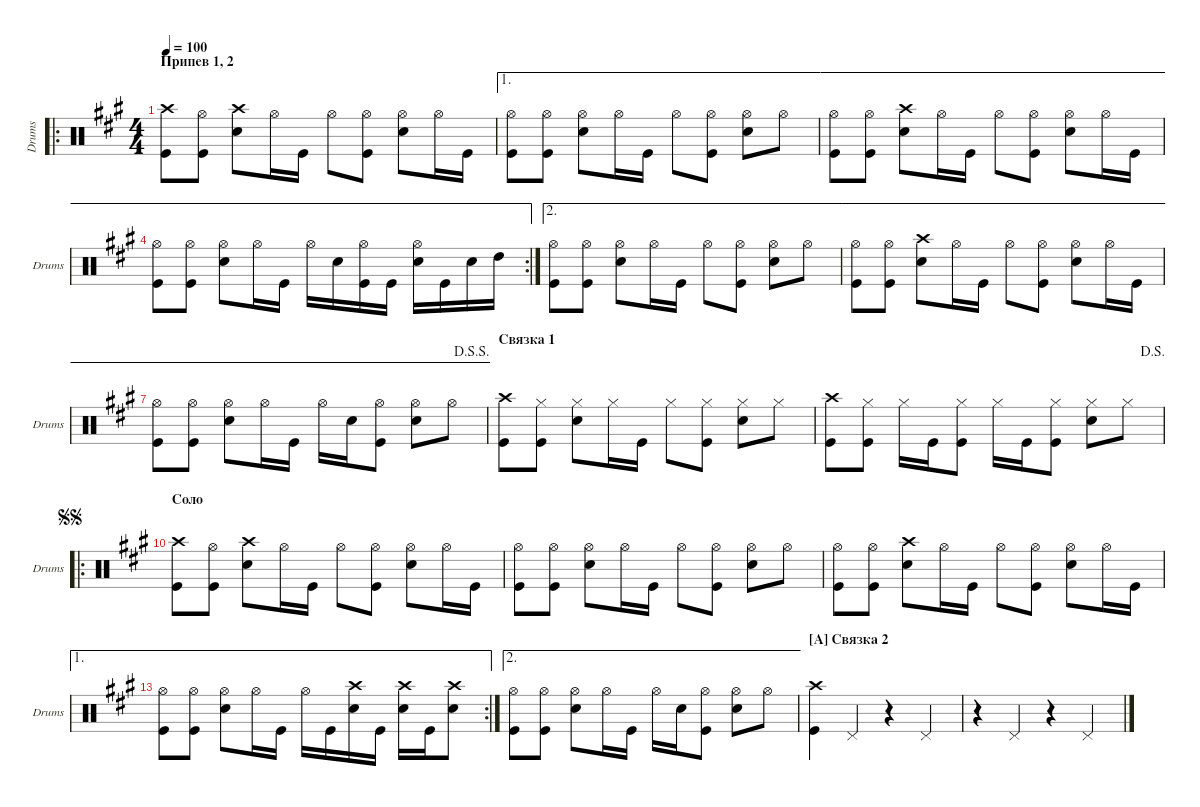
\defaultSystemsLayout 4
\hideDynamics
\bracketExtendMode groupsimilarinstruments
\singleTrackTrackNamePolicy allsystems
\multiTrackTrackNamePolicy allsystems
\otherSystemsTrackNameOrientation horizontal
\defaultBarNumberDisplay FirstOfSystem
\track ("Drumkit" "Drums") {instrument percussion}
\staff {score}
\articulation defaults
\ro
\ts (4 4)
\section ("" "Припев 1, 2")
\tempo 100
\clef neutral
\ks f#minor
("Kick (hit)" "Crash high (hit)").8{dy f} ("Kick (hit)" "Hi-Hat (open)").8 ("Snare (hit) 2" "Crash high (hit)").8 "Hi-Hat (open)".16 "Kick (hit)".16 "Hi-Hat (open)".8 ("Kick (hit)" "Hi-Hat (open)").8 ("Snare (hit) 2" "Hi-Hat (open)").8 "Hi-Hat (open)".16 "Kick (hit)".16 |
\ae 1
("Kick (hit)" "Hi-Hat (open)").8 ("Kick (hit)" "Hi-Hat (open)").8 ("Snare (hit) 2" "Hi-Hat (open)").8 "Hi-Hat (open)".16 "Kick (hit)".16 "Hi-Hat (open)".8 ("Kick (hit)" "Hi-Hat (open)").8 ("Snare (hit) 2" "Hi-Hat (open)").8 "Hi-Hat (open)".8 |
\ae 1
("Kick (hit)" "Hi-Hat (open)").8 ("Kick (hit)" "Hi-Hat (open)").8 ("Snare (hit) 2" "Crash high (hit)").8 "Hi-Hat (open)".16 "Kick (hit)".16 "Hi-Hat (open)".8 ("Kick (hit)" "Hi-Hat (open)").8 ("Snare (hit) 2" "Hi-Hat (open)").8 "Hi-Hat (open)".16 "Kick (hit)".16 |
\ae 1
\rc 2
("Kick (hit)" "Hi-Hat (open)").8 ("Kick (hit)" "Hi-Hat (open)").8 ("Snare (hit) 2" "Hi-Hat (open)").8 "Hi-Hat (open)".16 "Kick (hit)".16 "Hi-Hat (open)".16 "Snare (hit) 2".16 ("Kick (hit)" "Hi-Hat (open)").16 "Kick (hit)".16 ("Snare (hit) 2" "Hi-Hat (open)").16 "Kick (hit)".16 "Snare (hit) 2".16 "High Tom (hit)".16 |
\ae 2
("Kick (hit)" "Hi-Hat (open)").8 ("Kick (hit)" "Hi-Hat (open)").8 ("Snare (hit) 2" "Hi-Hat (open)").8 "Hi-Hat (open)".16 "Kick (hit)".16 "Hi-Hat (open)".8 ("Kick (hit)" "Hi-Hat (open)").8 ("Snare (hit) 2" "Hi-Hat (open)").8 "Hi-Hat (open)".8 |
\ae 2
("Kick (hit)" "Hi-Hat (open)").8 ("Kick (hit)" "Hi-Hat (open)").8 ("Snare (hit) 2" "Crash high (hit)").8 "Hi-Hat (open)".16 "Kick (hit)".16 "Hi-Hat (open)".8 ("Kick (hit)" "Hi-Hat (open)").8 ("Snare (hit) 2" "Hi-Hat (open)").8 "Hi-Hat (open)".16 "Kick (hit)".16 |
\ae 2
\jump dalsegnosegno
("Kick (hit)" "Hi-Hat (open)").8 ("Kick (hit)" "Hi-Hat (open)").8 ("Snare (hit) 2" "Hi-Hat (open)").8 "Hi-Hat (open)".16 "Kick (hit)".16 "Hi-Hat (open)".16 "Snare (hit) 2".16 ("Kick (hit)" "Hi-Hat (open)").8 ("Snare (hit) 2" "Hi-Hat (open)").8 "Hi-Hat (open)".8 |
\section ("" "Связка 1")
("Kick (hit)" "Crash high (hit)").8 ("Kick (hit)" "Hi-Hat (closed)").8 ("Snare (hit) 2" "Hi-Hat (closed)").8 "Hi-Hat (closed)".16 "Kick (hit)".16 "Hi-Hat (closed)".8 ("Kick (hit)" "Hi-Hat (closed)").8 ("Snare (hit) 2" "Hi-Hat (closed)").8 "Hi-Hat (closed)".8 |
\jump dalsegno
("Kick (hit)" "Crash high (hit)").8 ("Kick (hit)" "Hi-Hat (closed)").8 "Hi-Hat (closed)".16 "Kick (hit)".16 ("Hi-Hat (closed)" "Kick (hit)").8 "Hi-Hat (closed)".16 "Kick (hit)".16 ("Kick (hit)" "Hi-Hat (closed)").8 ("Snare (hit) 2" "Hi-Hat (closed)").8 "Hi-Hat (closed)".8 |
\ro
\section ("" "Соло")
\jump segnosegno
("Kick (hit)" "Crash high (hit)").8 ("Kick (hit)" "Hi-Hat (open)").8 ("Snare (hit) 2" "Crash high (hit)").8 "Hi-Hat (open)".16 "Kick (hit)".16 "Hi-Hat (open)".8 ("Kick (hit)" "Hi-Hat (open)").8 ("Snare (hit) 2" "Hi-Hat (open)").8 "Hi-Hat (open)".16 "Kick (hit)".16 |
("Kick (hit)" "Hi-Hat (open)").8 ("Kick (hit)" "Hi-Hat (open)").8 ("Snare (hit) 2" "Hi-Hat (open)").8 "Hi-Hat (open)".16 "Kick (hit)".16 "Hi-Hat (open)".8 ("Kick (hit)" "Hi-Hat (open)").8 ("Snare (hit) 2" "Hi-Hat (open)").8 "Hi-Hat (open)".8 |
("Kick (hit)" "Hi-Hat (open)").8 ("Kick (hit)" "Hi-Hat (open)").8 ("Snare (hit) 2" "Crash high (hit)").8 "Hi-Hat (open)".16 "Kick (hit)".16 "Hi-Hat (open)".8 ("Kick (hit)" "Hi-Hat (open)").8 ("Snare (hit) 2" "Hi-Hat (open)").8 "Hi-Hat (open)".16 "Kick (hit)".16 |
\ae 1
\rc 2
("Kick (hit)" "Hi-Hat (open)").8 ("Kick (hit)" "Hi-Hat (open)").8 ("Snare (hit) 2" "Hi-Hat (open)").8 "Hi-Hat (open)".16 "Kick (hit)".16 "Hi-Hat (open)".16 "Kick (hit)".16 ("Crash high (hit)" "Snare (hit) 2").16 "Kick (hit)".16 ("Crash high (hit)" "Snare (hit) 2").16 "Kick (hit)".16 ("Crash high (hit)" "Snare (hit) 2").8 |
\ae 2
("Kick (hit)" "Hi-Hat (open)").8 ("Kick (hit)" "Hi-Hat (open)").8 ("Snare (hit) 2" "Hi-Hat (open)").8 "Hi-Hat (open)".16 "Kick (hit)".16 "Hi-Hat (open)".16 "Snare (hit) 2".16 ("Kick (hit)" "Hi-Hat (open)").8 ("Snare (hit) 2" "Hi-Hat (open)").8 "Hi-Hat (open)".8 |
\section ("A" "Связка 2")
("Kick (hit)" "Crash high (hit)").4 "Pedal Hi-Hat (hit)".4 r.4 "Pedal Hi-Hat (hit)".4 |
r.4 "Pedal Hi-Hat (hit)".4 r.4 "Pedal Hi-Hat (hit)".4
